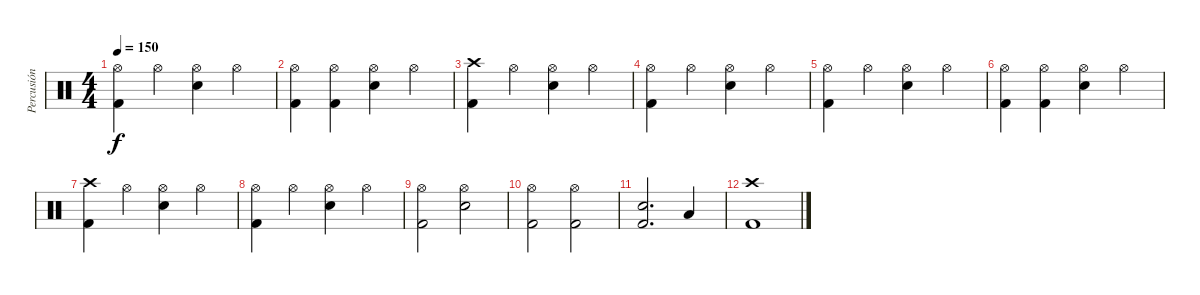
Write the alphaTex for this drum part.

\track ("Percusión" "Percusión") {instrument percussion}
\staff {score}
\articulation defaults
\ts (4 4)
\tempo 150
\clef neutral
\ks c
("Kick (hit) 2" "Hi-Hat (open)").4{dy f} "Hi-Hat (open)".4 ("Snare (hit) 2" "Hi-Hat (open)").4 "Hi-Hat (open)".4 |
("Kick (hit) 2" "Hi-Hat (open)").4 ("Kick (hit) 2" "Hi-Hat (open)").4 ("Snare (hit) 2" "Hi-Hat (open)").4 "Hi-Hat (open)".4 |
("Kick (hit) 2" "Crash high (hit)").4 "Hi-Hat (open)".4 ("Snare (hit) 2" "Hi-Hat (open)").4 "Hi-Hat (open)".4 |
("Kick (hit) 2" "Hi-Hat (open)").4 "Hi-Hat (open)".4 ("Snare (hit) 2" "Hi-Hat (open)").4 "Hi-Hat (open)".4 |
("Kick (hit) 2" "Hi-Hat (open)").4 "Hi-Hat (open)".4 ("Snare (hit) 2" "Hi-Hat (open)").4 "Hi-Hat (open)".4 |
("Kick (hit) 2" "Hi-Hat (open)").4 ("Kick (hit) 2" "Hi-Hat (open)").4 ("Snare (hit) 2" "Hi-Hat (open)").4 "Hi-Hat (open)".4 |
("Kick (hit) 2" "Crash high (hit)").4 "Hi-Hat (open)".4 ("Snare (hit) 2" "Hi-Hat (open)").4 "Hi-Hat (open)".4 |
("Kick (hit) 2" "Hi-Hat (open)").4 "Hi-Hat (open)".4 ("Snare (hit) 2" "Hi-Hat (open)").4 "Hi-Hat (open)".4 |
("Hi-Hat (open)" "Kick (hit) 2").2 ("Hi-Hat (open)" "Snare (hit) 2").2 |
("Hi-Hat (open)" "Kick (hit) 2").2 ("Hi-Hat (open)" "Kick (hit) 2").2 |
("Kick (hit) 2" "Snare (hit) 2").2{d} "Low Tom (hit)".4 |
("Crash high (hit)" "Kick (hit) 2").1
